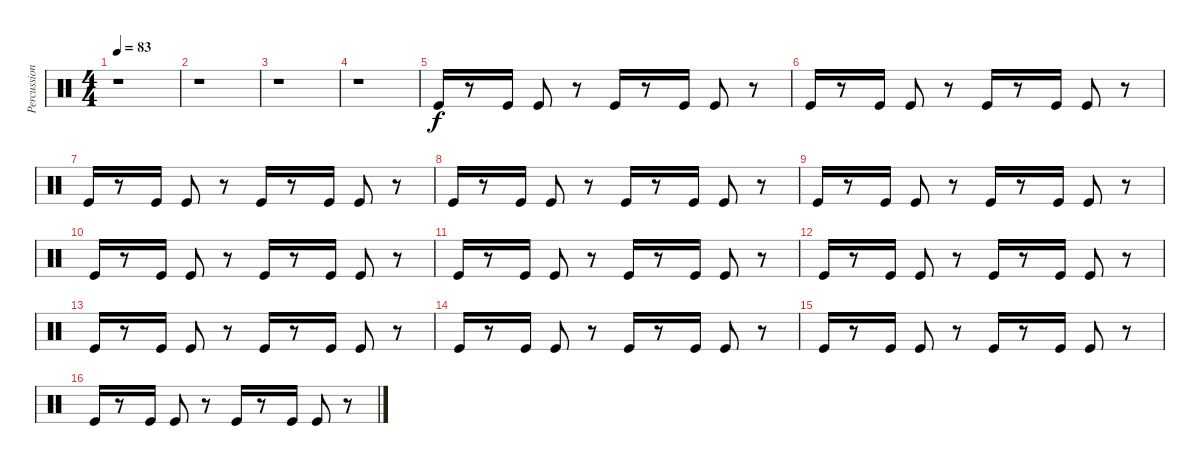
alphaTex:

\track ("Percussion" "Percussion") {instrument percussion}
\staff {score}
\articulation defaults
\ts (4 4)
\tempo 83
\clef neutral
\ks c
r.1{dy f} |
r.1 |
r.1 |
r.1 |
"Kick (hit)".16 r.8 "Kick (hit)".16 "Kick (hit)".8 r.8 "Kick (hit)".16 r.8 "Kick (hit)".16 "Kick (hit)".8 r.8 |
"Kick (hit)".16 r.8 "Kick (hit)".16 "Kick (hit)".8 r.8 "Kick (hit)".16 r.8 "Kick (hit)".16 "Kick (hit)".8 r.8 |
"Kick (hit)".16 r.8 "Kick (hit)".16 "Kick (hit)".8 r.8 "Kick (hit)".16 r.8 "Kick (hit)".16 "Kick (hit)".8 r.8 |
"Kick (hit)".16 r.8 "Kick (hit)".16 "Kick (hit)".8 r.8 "Kick (hit)".16 r.8 "Kick (hit)".16 "Kick (hit)".8 r.8 |
"Kick (hit)".16 r.8 "Kick (hit)".16 "Kick (hit)".8 r.8 "Kick (hit)".16 r.8 "Kick (hit)".16 "Kick (hit)".8 r.8 |
"Kick (hit)".16 r.8 "Kick (hit)".16 "Kick (hit)".8 r.8 "Kick (hit)".16 r.8 "Kick (hit)".16 "Kick (hit)".8 r.8 |
"Kick (hit)".16 r.8 "Kick (hit)".16 "Kick (hit)".8 r.8 "Kick (hit)".16 r.8 "Kick (hit)".16 "Kick (hit)".8 r.8 |
"Kick (hit)".16 r.8 "Kick (hit)".16 "Kick (hit)".8 r.8 "Kick (hit)".16 r.8 "Kick (hit)".16 "Kick (hit)".8 r.8 |
"Kick (hit)".16 r.8 "Kick (hit)".16 "Kick (hit)".8 r.8 "Kick (hit)".16 r.8 "Kick (hit)".16 "Kick (hit)".8 r.8 |
"Kick (hit)".16 r.8 "Kick (hit)".16 "Kick (hit)".8 r.8 "Kick (hit)".16 r.8 "Kick (hit)".16 "Kick (hit)".8 r.8 |
"Kick (hit)".16 r.8 "Kick (hit)".16 "Kick (hit)".8 r.8 "Kick (hit)".16 r.8 "Kick (hit)".16 "Kick (hit)".8 r.8 |
"Kick (hit)".16 r.8 "Kick (hit)".16 "Kick (hit)".8 r.8 "Kick (hit)".16 r.8 "Kick (hit)".16 "Kick (hit)".8 r.8
